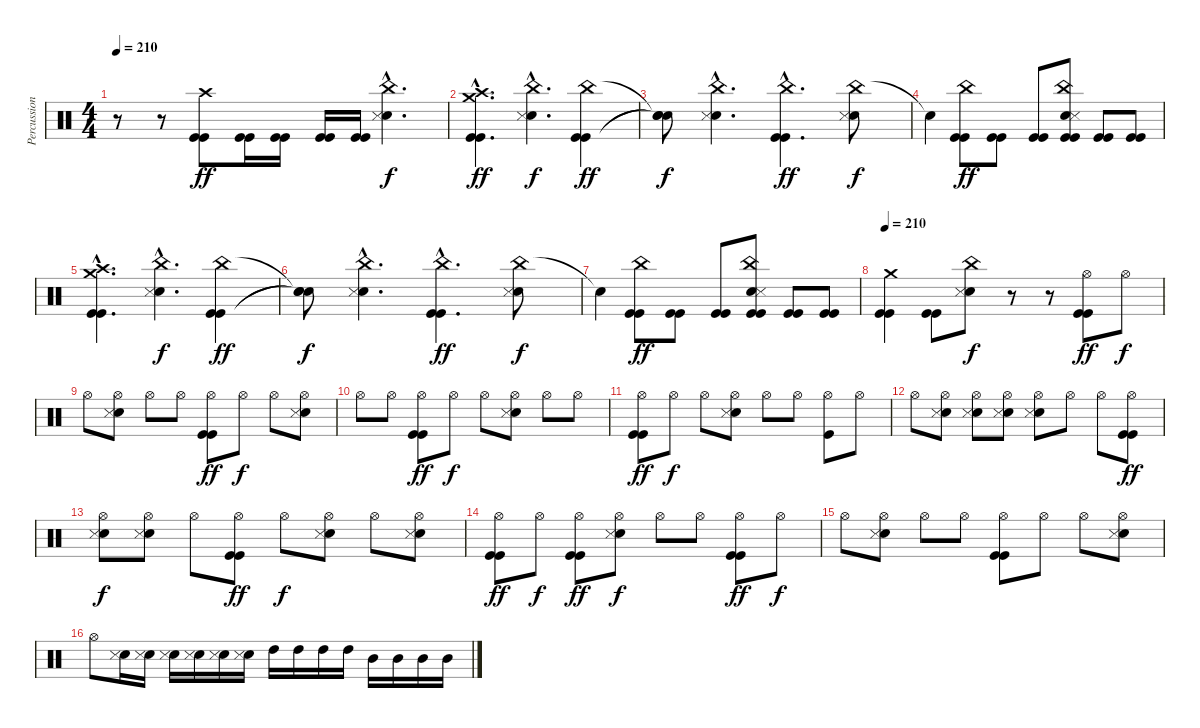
\track ("Percussion" "Percussion") {instrument percussion}
\staff {score}
\articulation defaults
\ts (4 4)
\tempo 210
\clef neutral
\ks c
r.8{dy ff} r.8 ("Crash high (hit)" "Kick (hit)" "Kick (hit)").8 ("Kick (hit)" "Kick (hit)").16 ("Kick (hit)" "Kick (hit)").16 ("Kick (hit)" "Kick (hit)").16 ("Kick (hit)" "Kick (hit)").16 ("China (hit)"{hac} "Electric Snare (hit)"{hac} "Snare (side stick) 3"{hac}).4{d dy f} |
("Crash medium (hit)"{hac} "Crash high (hit)"{hac} "Kick (hit)"{hac} "Kick (hit)"{hac}).4{d dy ff} ("China (hit)"{hac} "Electric Snare (hit)"{hac} "Snare (side stick) 3"{hac}).4{d dy f} ("China (hit)" "Kick (hit)" "Kick (hit)").4{dy ff} |
("Snare (hit)"{t} "Snare (hit)"{t} "Snare (hit)"{t}).8{dy f} ("China (hit)"{hac} "Electric Snare (hit)"{hac} "Snare (side stick) 3"{hac}).4{d} ("China (hit)"{hac} "Kick (hit)"{hac} "Kick (hit)"{hac}).4{d dy ff} ("China (hit)" "Electric Snare (hit)" "Snare (side stick) 3").8{dy f} |
"Snare (hit)"{t}.4 ("China (hit)" "Kick (hit)" "Kick (hit)").8{dy ff} ("Kick (hit)" "Kick (hit)").8 ("Kick (hit)" "Kick (hit)").8 ("China (hit)" "Electric Snare (hit)" "Snare (side stick) 3" "Kick (hit)" "Kick (hit)").8 ("Kick (hit)" "Kick (hit)").8 ("Kick (hit)" "Kick (hit)").8 |
("Crash medium (hit)"{hac} "Crash high (hit)"{hac} "Kick (hit)"{hac} "Kick (hit)"{hac}).4{d} ("China (hit)"{hac} "Electric Snare (hit)"{hac} "Snare (side stick) 3"{hac}).4{d dy f} ("China (hit)" "Kick (hit)" "Kick (hit)").4{dy ff} |
("Snare (hit)"{t} "Snare (hit)"{t} "Snare (hit)"{t}).8{dy f} ("China (hit)"{hac} "Electric Snare (hit)"{hac} "Snare (side stick) 3"{hac}).4{d} ("China (hit)"{hac} "Kick (hit)"{hac} "Kick (hit)"{hac}).4{d dy ff} ("China (hit)" "Electric Snare (hit)" "Snare (side stick) 3").8{dy f} |
"Snare (hit)"{t}.4 ("China (hit)" "Kick (hit)" "Kick (hit)").8{dy ff} ("Kick (hit)" "Kick (hit)").8 ("Kick (hit)" "Kick (hit)").8 ("China (hit)" "Electric Snare (hit)" "Snare (side stick) 3" "Kick (hit)" "Kick (hit)").8 ("Kick (hit)" "Kick (hit)").8 ("Kick (hit)" "Kick (hit)").8 |
\tempo 210
("Crash medium (hit)" "Kick (hit)" "Kick (hit)").4 ("Kick (hit)" "Kick (hit)").8 ("China (hit)" "Electric Snare (hit)" "Snare (side stick) 3").8{dy f} r.8 r.8 ("Hi-Hat (open)" "Kick (hit)" "Kick (hit)").8{dy ff} "Hi-Hat (open)".8{dy f} |
"Hi-Hat (open)".8 ("Hi-Hat (open)" "Electric Snare (hit)" "Snare (side stick) 3").8 "Hi-Hat (open)".8 "Hi-Hat (open)".8 ("Hi-Hat (open)" "Kick (hit)" "Kick (hit)").8{dy ff} "Hi-Hat (open)".8{dy f} "Hi-Hat (open)".8 ("Hi-Hat (open)" "Electric Snare (hit)" "Snare (side stick) 3").8 |
"Hi-Hat (open)".8 "Hi-Hat (open)".8 ("Hi-Hat (open)" "Kick (hit)" "Kick (hit)").8{dy ff} "Hi-Hat (open)".8{dy f} "Hi-Hat (open)".8 ("Hi-Hat (open)" "Electric Snare (hit)" "Snare (side stick) 3").8 "Hi-Hat (open)".8 "Hi-Hat (open)".8 |
("Hi-Hat (open)" "Kick (hit)" "Kick (hit)").8{dy ff} "Hi-Hat (open)".8{dy f} "Hi-Hat (open)".8 ("Hi-Hat (open)" "Electric Snare (hit)" "Snare (side stick) 3").8 "Hi-Hat (open)".8 "Hi-Hat (open)".8 ("Hi-Hat (open)" "Kick (hit)").8 "Hi-Hat (open)".8 |
"Hi-Hat (open)".8 ("Hi-Hat (open)" "Electric Snare (hit)" "Snare (side stick) 3").8 ("Hi-Hat (open)" "Electric Snare (hit)" "Snare (side stick) 3").8 ("Hi-Hat (open)" "Electric Snare (hit)" "Snare (side stick) 3").8 ("Hi-Hat (open)" "Electric Snare (hit)" "Snare (side stick) 3").8 "Hi-Hat (open)".8 "Hi-Hat (open)".8 ("Hi-Hat (open)" "Kick (hit)" "Kick (hit)").8{dy ff} |
("Hi-Hat (open)" "Electric Snare (hit)" "Snare (side stick) 3").8{dy f} ("Hi-Hat (open)" "Electric Snare (hit)" "Snare (side stick) 3").8 "Hi-Hat (open)".8 ("Hi-Hat (open)" "Kick (hit)" "Kick (hit)").8{dy ff} "Hi-Hat (open)".8{dy f} ("Hi-Hat (open)" "Electric Snare (hit)" "Snare (side stick) 3").8 "Hi-Hat (open)".8 ("Hi-Hat (open)" "Electric Snare (hit)" "Snare (side stick) 3").8 |
("Hi-Hat (open)" "Kick (hit)" "Kick (hit)").8{dy ff} "Hi-Hat (open)".8{dy f} ("Hi-Hat (open)" "Kick (hit)" "Kick (hit)").8{dy ff} ("Hi-Hat (open)" "Electric Snare (hit)" "Snare (side stick) 3").8{dy f} "Hi-Hat (open)".8 "Hi-Hat (open)".8 ("Hi-Hat (open)" "Kick (hit)" "Kick (hit)").8{dy ff} "Hi-Hat (open)".8{dy f} |
"Hi-Hat (open)".8 ("Hi-Hat (open)" "Electric Snare (hit)" "Snare (side stick) 3").8 "Hi-Hat (open)".8 "Hi-Hat (open)".8 ("Hi-Hat (open)" "Kick (hit)" "Kick (hit)").8 "Hi-Hat (open)".8 "Hi-Hat (open)".8 ("Hi-Hat (open)" "Electric Snare (hit)" "Snare (side stick) 3").8 |
"Hi-Hat (open)".8 ("Electric Snare (hit)" "Snare (side stick) 3").16 ("Electric Snare (hit)" "Snare (side stick) 3").16 ("Electric Snare (hit)" "Snare (side stick) 3").16 ("Electric Snare (hit)" "Snare (side stick) 3").16 ("Electric Snare (hit)" "Snare (side stick) 3").16 ("Electric Snare (hit)" "Snare (side stick) 3").16 "High Tom (hit)".16 "High Tom (hit)".16 "High Tom (hit)".16 "High Tom (hit)".16 "Mid Tom (hit)".16 "Mid Tom (hit)".16 "Mid Tom (hit)".16 "Mid Tom (hit)".16
